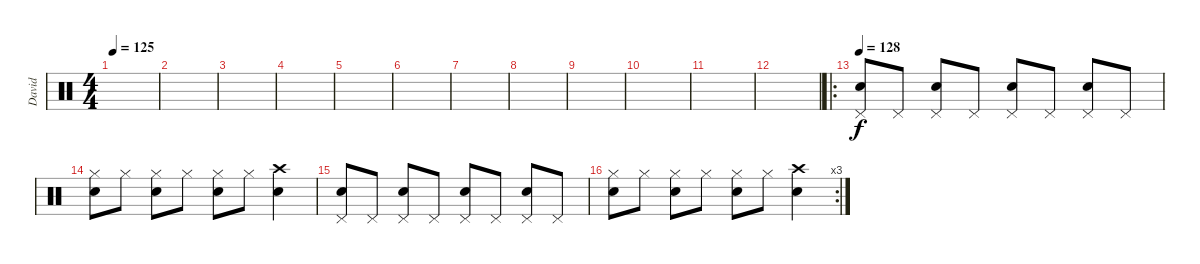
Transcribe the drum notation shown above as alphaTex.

\track ("David" "David") {instrument percussion}
\staff {score}
\articulation defaults
\ts (4 4)
\tempo 125
\clef neutral
\ks c
|
|
|
|
|
|
|
|
|
|
|
|
\ro
\tempo 128
("Pedal Hi-Hat (hit)" "Electric Snare (hit)").8 "Pedal Hi-Hat (hit)".8 ("Pedal Hi-Hat (hit)" "Electric Snare (hit)").8 "Pedal Hi-Hat (hit)".8 ("Pedal Hi-Hat (hit)" "Electric Snare (hit)").8 "Pedal Hi-Hat (hit)".8 ("Pedal Hi-Hat (hit)" "Electric Snare (hit)").8 "Pedal Hi-Hat (hit)".8 |
("Hi-Hat (closed)" "Electric Snare (hit)").8 "Hi-Hat (closed)".8 ("Hi-Hat (closed)" "Electric Snare (hit)").8 "Hi-Hat (closed)".8 ("Hi-Hat (closed)" "Electric Snare (hit)").8 "Hi-Hat (closed)".8 ("Crash high (hit)" "Electric Snare (hit)").4 |
("Pedal Hi-Hat (hit)" "Electric Snare (hit)").8 "Pedal Hi-Hat (hit)".8 ("Pedal Hi-Hat (hit)" "Electric Snare (hit)").8 "Pedal Hi-Hat (hit)".8 ("Pedal Hi-Hat (hit)" "Electric Snare (hit)").8 "Pedal Hi-Hat (hit)".8 ("Pedal Hi-Hat (hit)" "Electric Snare (hit)").8 "Pedal Hi-Hat (hit)".8 |
\rc 3
("Hi-Hat (closed)" "Electric Snare (hit)").8 "Hi-Hat (closed)".8 ("Hi-Hat (closed)" "Electric Snare (hit)").8 "Hi-Hat (closed)".8 ("Hi-Hat (closed)" "Electric Snare (hit)").8 "Hi-Hat (closed)".8 ("Crash high (hit)" "Electric Snare (hit)").4
